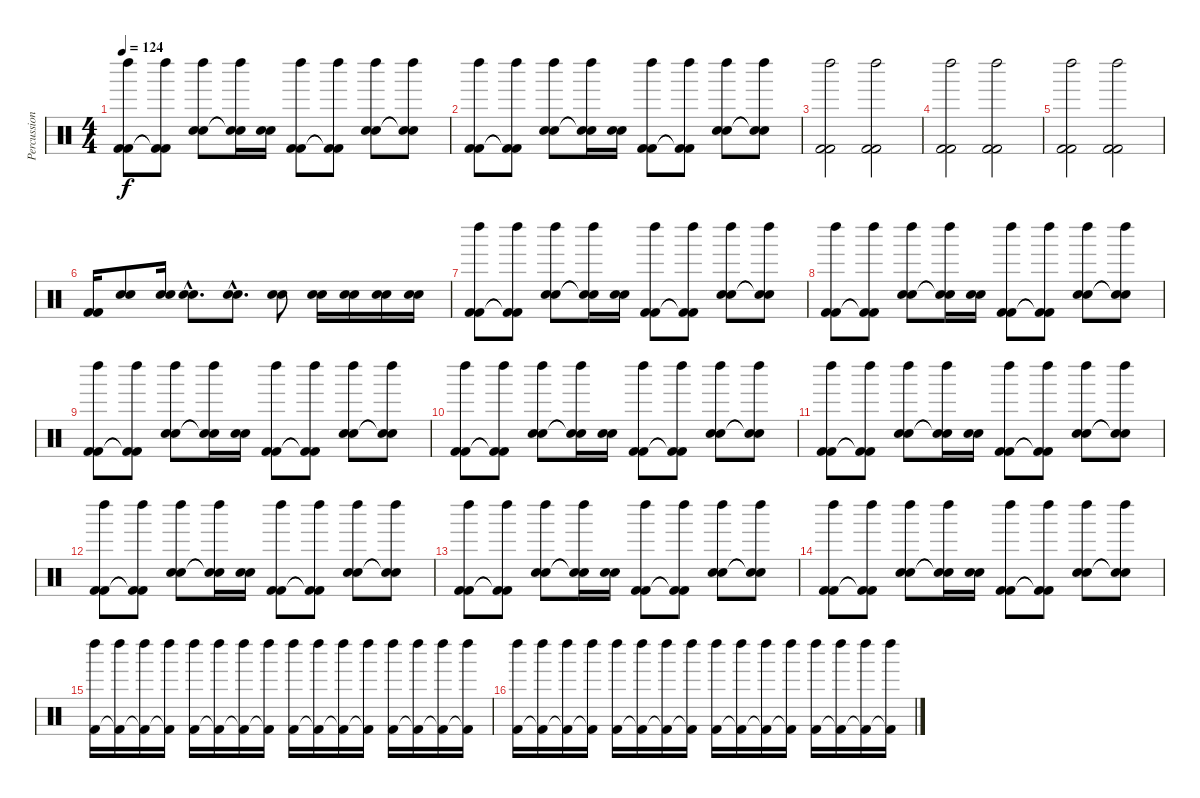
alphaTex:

\track ("Percussions" "Percussion") {instrument percussion}
\staff {score}
\articulation defaults
\ts (4 4)
\tempo 124
\clef neutral
\ks c
("Left Maraca (hit)" "Kick (hit) 2" "Kick (hit) 2").8{dy f} ("Left Maraca (hit)" "Kick (hit) 2"{t} "Kick (hit) 2"{t}).8 ("Left Maraca (hit)" "Snare (hit) 2" "Snare (hit) 2").8 ("Left Maraca (hit)" "Snare (hit) 2"{t} "Snare (hit) 2"{t}).16 ("Snare (hit) 2" "Snare (hit) 2").16 ("Left Maraca (hit)" "Kick (hit) 2" "Kick (hit) 2").8 ("Left Maraca (hit)" "Kick (hit) 2"{t} "Kick (hit) 2"{t}).8 ("Left Maraca (hit)" "Snare (hit) 2" "Snare (hit) 2").8 ("Left Maraca (hit)" "Snare (hit) 2"{t} "Snare (hit) 2"{t}).8 |
("Left Maraca (hit)" "Kick (hit) 2" "Kick (hit) 2").8 ("Left Maraca (hit)" "Kick (hit) 2"{t} "Kick (hit) 2"{t}).8 ("Left Maraca (hit)" "Snare (hit) 2" "Snare (hit) 2").8 ("Left Maraca (hit)" "Snare (hit) 2"{t} "Snare (hit) 2"{t}).16 ("Snare (hit) 2" "Snare (hit) 2").16 ("Left Maraca (hit)" "Kick (hit) 2" "Kick (hit) 2").8 ("Left Maraca (hit)" "Kick (hit) 2"{t} "Kick (hit) 2"{t}).8 ("Left Maraca (hit)" "Snare (hit) 2" "Snare (hit) 2").8 ("Left Maraca (hit)" "Snare (hit) 2"{t} "Snare (hit) 2"{t}).8 |
("Left Maraca (hit)" "Kick (hit) 2" "Kick (hit) 2").2 ("Left Maraca (hit)" "Kick (hit) 2" "Kick (hit) 2").2 |
("Left Maraca (hit)" "Kick (hit) 2" "Kick (hit) 2").2 ("Left Maraca (hit)" "Kick (hit) 2" "Kick (hit) 2").2 |
("Left Maraca (hit)" "Kick (hit) 2" "Kick (hit) 2").2 ("Left Maraca (hit)" "Kick (hit) 2" "Kick (hit) 2").2 |
("Kick (hit) 2" "Kick (hit) 2").16 ("Snare (hit) 2" "Snare (hit) 2").8 ("Snare (hit) 2" "Snare (hit) 2").16 ("Snare (hit) 2"{hac} "Snare (hit) 2"{hac}).8{d} ("Snare (hit) 2"{hac} "Snare (hit) 2"{hac}).8{d} ("Snare (hit) 2" "Snare (hit) 2").8 ("Snare (hit) 2" "Snare (hit) 2").16 ("Snare (hit) 2" "Snare (hit) 2").16 ("Snare (hit) 2" "Snare (hit) 2").16 ("Snare (hit) 2" "Snare (hit) 2").16 |
("Left Maraca (hit)" "Kick (hit) 2" "Kick (hit) 2").8 ("Left Maraca (hit)" "Kick (hit) 2"{t} "Kick (hit) 2"{t}).8 ("Left Maraca (hit)" "Snare (hit) 2" "Snare (hit) 2").8 ("Left Maraca (hit)" "Snare (hit) 2"{t} "Snare (hit) 2"{t}).16 ("Snare (hit) 2" "Snare (hit) 2").16 ("Left Maraca (hit)" "Kick (hit) 2" "Kick (hit) 2").8 ("Left Maraca (hit)" "Kick (hit) 2"{t} "Kick (hit) 2"{t}).8 ("Left Maraca (hit)" "Snare (hit) 2" "Snare (hit) 2").8 ("Left Maraca (hit)" "Snare (hit) 2"{t} "Snare (hit) 2"{t}).8 |
("Left Maraca (hit)" "Kick (hit) 2" "Kick (hit) 2").8 ("Left Maraca (hit)" "Kick (hit) 2"{t} "Kick (hit) 2"{t}).8 ("Left Maraca (hit)" "Snare (hit) 2" "Snare (hit) 2").8 ("Left Maraca (hit)" "Snare (hit) 2"{t} "Snare (hit) 2"{t}).16 ("Snare (hit) 2" "Snare (hit) 2").16 ("Left Maraca (hit)" "Kick (hit) 2" "Kick (hit) 2").8 ("Left Maraca (hit)" "Kick (hit) 2"{t} "Kick (hit) 2"{t}).8 ("Left Maraca (hit)" "Snare (hit) 2" "Snare (hit) 2").8 ("Left Maraca (hit)" "Snare (hit) 2"{t} "Snare (hit) 2"{t}).8 |
("Left Maraca (hit)" "Kick (hit) 2" "Kick (hit) 2").8 ("Left Maraca (hit)" "Kick (hit) 2"{t} "Kick (hit) 2"{t}).8 ("Left Maraca (hit)" "Snare (hit) 2" "Snare (hit) 2").8 ("Left Maraca (hit)" "Snare (hit) 2"{t} "Snare (hit) 2"{t}).16 ("Snare (hit) 2" "Snare (hit) 2").16 ("Left Maraca (hit)" "Kick (hit) 2" "Kick (hit) 2").8 ("Left Maraca (hit)" "Kick (hit) 2"{t} "Kick (hit) 2"{t}).8 ("Left Maraca (hit)" "Snare (hit) 2" "Snare (hit) 2").8 ("Left Maraca (hit)" "Snare (hit) 2"{t} "Snare (hit) 2"{t}).8 |
("Left Maraca (hit)" "Kick (hit) 2" "Kick (hit) 2").8 ("Left Maraca (hit)" "Kick (hit) 2"{t} "Kick (hit) 2"{t}).8 ("Left Maraca (hit)" "Snare (hit) 2" "Snare (hit) 2").8 ("Left Maraca (hit)" "Snare (hit) 2"{t} "Snare (hit) 2"{t}).16 ("Snare (hit) 2" "Snare (hit) 2").16 ("Left Maraca (hit)" "Kick (hit) 2" "Kick (hit) 2").8 ("Left Maraca (hit)" "Kick (hit) 2"{t} "Kick (hit) 2"{t}).8 ("Left Maraca (hit)" "Snare (hit) 2" "Snare (hit) 2").8 ("Left Maraca (hit)" "Snare (hit) 2"{t} "Snare (hit) 2"{t}).8 |
("Left Maraca (hit)" "Kick (hit) 2" "Kick (hit) 2").8 ("Left Maraca (hit)" "Kick (hit) 2"{t} "Kick (hit) 2"{t}).8 ("Left Maraca (hit)" "Snare (hit) 2" "Snare (hit) 2").8 ("Left Maraca (hit)" "Snare (hit) 2"{t} "Snare (hit) 2"{t}).16 ("Snare (hit) 2" "Snare (hit) 2").16 ("Left Maraca (hit)" "Kick (hit) 2" "Kick (hit) 2").8 ("Left Maraca (hit)" "Kick (hit) 2"{t} "Kick (hit) 2"{t}).8 ("Left Maraca (hit)" "Snare (hit) 2" "Snare (hit) 2").8 ("Left Maraca (hit)" "Snare (hit) 2"{t} "Snare (hit) 2"{t}).8 |
("Left Maraca (hit)" "Kick (hit) 2" "Kick (hit) 2").8 ("Left Maraca (hit)" "Kick (hit) 2"{t} "Kick (hit) 2"{t}).8 ("Left Maraca (hit)" "Snare (hit) 2" "Snare (hit) 2").8 ("Left Maraca (hit)" "Snare (hit) 2"{t} "Snare (hit) 2"{t}).16 ("Snare (hit) 2" "Snare (hit) 2").16 ("Left Maraca (hit)" "Kick (hit) 2" "Kick (hit) 2").8 ("Left Maraca (hit)" "Kick (hit) 2"{t} "Kick (hit) 2"{t}).8 ("Left Maraca (hit)" "Snare (hit) 2" "Snare (hit) 2").8 ("Left Maraca (hit)" "Snare (hit) 2"{t} "Snare (hit) 2"{t}).8 |
("Left Maraca (hit)" "Kick (hit) 2" "Kick (hit) 2").8 ("Left Maraca (hit)" "Kick (hit) 2"{t} "Kick (hit) 2"{t}).8 ("Left Maraca (hit)" "Snare (hit) 2" "Snare (hit) 2").8 ("Left Maraca (hit)" "Snare (hit) 2"{t} "Snare (hit) 2"{t}).16 ("Snare (hit) 2" "Snare (hit) 2").16 ("Left Maraca (hit)" "Kick (hit) 2" "Kick (hit) 2").8 ("Left Maraca (hit)" "Kick (hit) 2"{t} "Kick (hit) 2"{t}).8 ("Left Maraca (hit)" "Snare (hit) 2" "Snare (hit) 2").8 ("Left Maraca (hit)" "Snare (hit) 2"{t} "Snare (hit) 2"{t}).8 |
("Left Maraca (hit)" "Kick (hit) 2" "Kick (hit) 2").8 ("Left Maraca (hit)" "Kick (hit) 2"{t} "Kick (hit) 2"{t}).8 ("Left Maraca (hit)" "Snare (hit) 2" "Snare (hit) 2").8 ("Left Maraca (hit)" "Snare (hit) 2"{t} "Snare (hit) 2"{t}).16 ("Snare (hit) 2" "Snare (hit) 2").16 ("Left Maraca (hit)" "Kick (hit) 2" "Kick (hit) 2").8 ("Left Maraca (hit)" "Kick (hit) 2"{t} "Kick (hit) 2"{t}).8 ("Left Maraca (hit)" "Snare (hit) 2" "Snare (hit) 2").8 ("Left Maraca (hit)" "Snare (hit) 2"{t} "Snare (hit) 2"{t}).8 |
("Left Maraca (hit)" "Kick (hit) 2").16 ("Left Maraca (hit)" "Kick (hit) 2"{t}).16 ("Left Maraca (hit)" "Kick (hit) 2"{t}).16 ("Left Maraca (hit)" "Kick (hit) 2"{t}).16 ("Left Maraca (hit)" "Kick (hit) 2").16 ("Left Maraca (hit)" "Kick (hit) 2"{t}).16 ("Left Maraca (hit)" "Kick (hit) 2"{t}).16 ("Left Maraca (hit)" "Kick (hit) 2"{t}).16 ("Left Maraca (hit)" "Kick (hit) 2").16 ("Left Maraca (hit)" "Kick (hit) 2"{t}).16 ("Left Maraca (hit)" "Kick (hit) 2"{t}).16 ("Left Maraca (hit)" "Kick (hit) 2"{t}).16 ("Left Maraca (hit)" "Kick (hit) 2").16 ("Left Maraca (hit)" "Kick (hit) 2"{t}).16 ("Left Maraca (hit)" "Kick (hit) 2"{t}).16 ("Left Maraca (hit)" "Kick (hit) 2"{t}).16 |
("Left Maraca (hit)" "Kick (hit) 2").16 ("Left Maraca (hit)" "Kick (hit) 2"{t}).16 ("Left Maraca (hit)" "Kick (hit) 2"{t}).16 ("Left Maraca (hit)" "Kick (hit) 2"{t}).16 ("Left Maraca (hit)" "Kick (hit) 2").16 ("Left Maraca (hit)" "Kick (hit) 2"{t}).16 ("Left Maraca (hit)" "Kick (hit) 2"{t}).16 ("Left Maraca (hit)" "Kick (hit) 2"{t}).16 ("Left Maraca (hit)" "Kick (hit) 2").16 ("Left Maraca (hit)" "Kick (hit) 2"{t}).16 ("Left Maraca (hit)" "Kick (hit) 2"{t}).16 ("Left Maraca (hit)" "Kick (hit) 2"{t}).16 ("Left Maraca (hit)" "Kick (hit) 2").16 ("Left Maraca (hit)" "Kick (hit) 2"{t}).16 ("Left Maraca (hit)" "Kick (hit) 2"{t}).16 ("Left Maraca (hit)" "Kick (hit) 2"{t}).16
